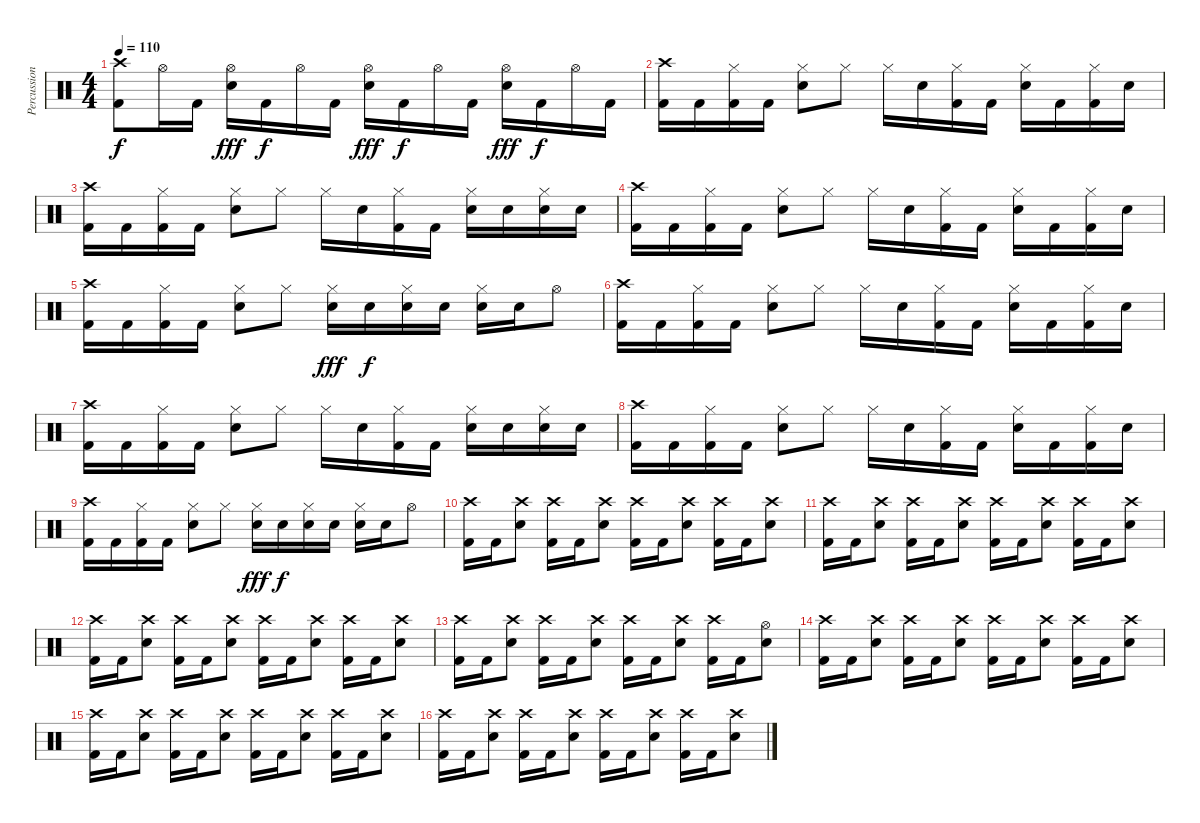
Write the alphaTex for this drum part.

\track ("Percussions" "Percussion") {instrument percussion}
\staff {score}
\articulation defaults
\ts (4 4)
\tempo 110
\clef neutral
\ks c
("Crash high (hit)" "Kick (hit) 2").8{dy f} "Hi-Hat (open)".16 "Kick (hit) 2".16 ("Hi-Hat (open)" "Snare (hit) 2").16{dy fff} "Kick (hit) 2".16{dy f} "Hi-Hat (open)".16 "Kick (hit) 2".16 ("Hi-Hat (open)" "Snare (hit) 2").16{dy fff} "Kick (hit) 2".16{dy f} "Hi-Hat (open)".16 "Kick (hit) 2".16 ("Hi-Hat (open)" "Snare (hit) 2").16{dy fff} "Kick (hit) 2".16{dy f} "Hi-Hat (open)".16 "Kick (hit) 2".16 |
("Crash high (hit)" "Kick (hit) 2").16 "Kick (hit) 2".16 ("Hi-Hat (closed)" "Kick (hit) 2").16 "Kick (hit) 2".16 ("Hi-Hat (closed)" "Snare (hit) 2").8 "Hi-Hat (closed)".8 "Hi-Hat (closed)".16 "Snare (hit) 2".16 ("Hi-Hat (closed)" "Kick (hit) 2").16 "Kick (hit) 2".16 ("Hi-Hat (closed)" "Snare (hit) 2").16 "Kick (hit) 2".16 ("Hi-Hat (closed)" "Kick (hit) 2").16 "Snare (hit) 2".16 |
("Crash high (hit)" "Kick (hit) 2").16 "Kick (hit) 2".16 ("Hi-Hat (closed)" "Kick (hit) 2").16 "Kick (hit) 2".16 ("Hi-Hat (closed)" "Snare (hit) 2").8 "Hi-Hat (closed)".8 "Hi-Hat (closed)".16 "Snare (hit) 2".16 ("Hi-Hat (closed)" "Kick (hit) 2").16 "Kick (hit) 2".16 ("Hi-Hat (closed)" "Snare (hit) 2").16 "Snare (hit) 2".16 ("Hi-Hat (closed)" "Snare (hit) 2").16 "Snare (hit) 2".16 |
("Crash high (hit)" "Kick (hit) 2").16 "Kick (hit) 2".16 ("Hi-Hat (closed)" "Kick (hit) 2").16 "Kick (hit) 2".16 ("Hi-Hat (closed)" "Snare (hit) 2").8 "Hi-Hat (closed)".8 "Hi-Hat (closed)".16 "Snare (hit) 2".16 ("Hi-Hat (closed)" "Kick (hit) 2").16 "Kick (hit) 2".16 ("Hi-Hat (closed)" "Snare (hit) 2").16 "Kick (hit) 2".16 ("Hi-Hat (closed)" "Kick (hit) 2").16 "Snare (hit) 2".16 |
("Crash high (hit)" "Kick (hit) 2").16 "Kick (hit) 2".16 ("Hi-Hat (closed)" "Kick (hit) 2").16 "Kick (hit) 2".16 ("Hi-Hat (closed)" "Snare (hit) 2").8 "Hi-Hat (closed)".8 ("Hi-Hat (closed)" "Snare (hit) 2").16{dy fff} "Snare (hit) 2".16{dy f} ("Hi-Hat (closed)" "Snare (hit) 2").16 "Snare (hit) 2".16 ("Hi-Hat (closed)" "Snare (hit) 2").16 "Snare (hit) 2".16 "Hi-Hat (open)".8 |
("Crash high (hit)" "Kick (hit) 2").16 "Kick (hit) 2".16 ("Hi-Hat (closed)" "Kick (hit) 2").16 "Kick (hit) 2".16 ("Hi-Hat (closed)" "Snare (hit) 2").8 "Hi-Hat (closed)".8 "Hi-Hat (closed)".16 "Snare (hit) 2".16 ("Hi-Hat (closed)" "Kick (hit) 2").16 "Kick (hit) 2".16 ("Hi-Hat (closed)" "Snare (hit) 2").16 "Kick (hit) 2".16 ("Hi-Hat (closed)" "Kick (hit) 2").16 "Snare (hit) 2".16 |
("Crash high (hit)" "Kick (hit) 2").16 "Kick (hit) 2".16 ("Hi-Hat (closed)" "Kick (hit) 2").16 "Kick (hit) 2".16 ("Hi-Hat (closed)" "Snare (hit) 2").8 "Hi-Hat (closed)".8 "Hi-Hat (closed)".16 "Snare (hit) 2".16 ("Hi-Hat (closed)" "Kick (hit) 2").16 "Kick (hit) 2".16 ("Hi-Hat (closed)" "Snare (hit) 2").16 "Snare (hit) 2".16 ("Hi-Hat (closed)" "Snare (hit) 2").16 "Snare (hit) 2".16 |
("Crash high (hit)" "Kick (hit) 2").16 "Kick (hit) 2".16 ("Hi-Hat (closed)" "Kick (hit) 2").16 "Kick (hit) 2".16 ("Hi-Hat (closed)" "Snare (hit) 2").8 "Hi-Hat (closed)".8 "Hi-Hat (closed)".16 "Snare (hit) 2".16 ("Hi-Hat (closed)" "Kick (hit) 2").16 "Kick (hit) 2".16 ("Hi-Hat (closed)" "Snare (hit) 2").16 "Kick (hit) 2".16 ("Hi-Hat (closed)" "Kick (hit) 2").16 "Snare (hit) 2".16 |
("Crash high (hit)" "Kick (hit) 2").16 "Kick (hit) 2".16 ("Hi-Hat (closed)" "Kick (hit) 2").16 "Kick (hit) 2".16 ("Hi-Hat (closed)" "Snare (hit) 2").8 "Hi-Hat (closed)".8 ("Hi-Hat (closed)" "Snare (hit) 2").16{dy fff} "Snare (hit) 2".16{dy f} ("Hi-Hat (closed)" "Snare (hit) 2").16 "Snare (hit) 2".16 ("Hi-Hat (closed)" "Snare (hit) 2").16 "Snare (hit) 2".16 "Hi-Hat (open)".8 |
("Crash high (hit)" "Kick (hit) 2").16 "Kick (hit) 2".16 ("Crash high (hit)" "Snare (hit) 2").8 ("Crash high (hit)" "Kick (hit) 2").16 "Kick (hit) 2".16 ("Crash high (hit)" "Snare (hit) 2").8 ("Crash high (hit)" "Kick (hit) 2").16 "Kick (hit) 2".16 ("Crash high (hit)" "Snare (hit) 2").8 ("Crash high (hit)" "Kick (hit) 2").16 "Kick (hit) 2".16 ("Crash high (hit)" "Snare (hit) 2").8 |
("Crash high (hit)" "Kick (hit) 2").16 "Kick (hit) 2".16 ("Crash high (hit)" "Snare (hit) 2").8 ("Crash high (hit)" "Kick (hit) 2").16 "Kick (hit) 2".16 ("Crash high (hit)" "Snare (hit) 2").8 ("Crash high (hit)" "Kick (hit) 2").16 "Kick (hit) 2".16 ("Crash high (hit)" "Snare (hit) 2").8 ("Crash high (hit)" "Kick (hit) 2").16 "Kick (hit) 2".16 ("Crash high (hit)" "Snare (hit) 2").8 |
("Crash high (hit)" "Kick (hit) 2").16 "Kick (hit) 2".16 ("Crash high (hit)" "Snare (hit) 2").8 ("Crash high (hit)" "Kick (hit) 2").16 "Kick (hit) 2".16 ("Crash high (hit)" "Snare (hit) 2").8 ("Crash high (hit)" "Kick (hit) 2").16 "Kick (hit) 2".16 ("Crash high (hit)" "Snare (hit) 2").8 ("Crash high (hit)" "Kick (hit) 2").16 "Kick (hit) 2".16 ("Crash high (hit)" "Snare (hit) 2").8 |
("Crash high (hit)" "Kick (hit) 2").16 "Kick (hit) 2".16 ("Crash high (hit)" "Snare (hit) 2").8 ("Crash high (hit)" "Kick (hit) 2").16 "Kick (hit) 2".16 ("Crash high (hit)" "Snare (hit) 2").8 ("Crash high (hit)" "Kick (hit) 2").16 "Kick (hit) 2".16 ("Crash high (hit)" "Snare (hit) 2").8 ("Crash high (hit)" "Kick (hit) 2").16 "Kick (hit) 2".16 ("Hi-Hat (open)" "Snare (hit) 2").8 |
("Crash high (hit)" "Kick (hit) 2").16 "Kick (hit) 2".16 ("Crash high (hit)" "Snare (hit) 2").8 ("Crash high (hit)" "Kick (hit) 2").16 "Kick (hit) 2".16 ("Crash high (hit)" "Snare (hit) 2").8 ("Crash high (hit)" "Kick (hit) 2").16 "Kick (hit) 2".16 ("Crash high (hit)" "Snare (hit) 2").8 ("Crash high (hit)" "Kick (hit) 2").16 "Kick (hit) 2".16 ("Crash high (hit)" "Snare (hit) 2").8 |
("Crash high (hit)" "Kick (hit) 2").16 "Kick (hit) 2".16 ("Crash high (hit)" "Snare (hit) 2").8 ("Crash high (hit)" "Kick (hit) 2").16 "Kick (hit) 2".16 ("Crash high (hit)" "Snare (hit) 2").8 ("Crash high (hit)" "Kick (hit) 2").16 "Kick (hit) 2".16 ("Crash high (hit)" "Snare (hit) 2").8 ("Crash high (hit)" "Kick (hit) 2").16 "Kick (hit) 2".16 ("Crash high (hit)" "Snare (hit) 2").8 |
("Crash high (hit)" "Kick (hit) 2").16 "Kick (hit) 2".16 ("Crash high (hit)" "Snare (hit) 2").8 ("Crash high (hit)" "Kick (hit) 2").16 "Kick (hit) 2".16 ("Crash high (hit)" "Snare (hit) 2").8 ("Crash high (hit)" "Kick (hit) 2").16 "Kick (hit) 2".16 ("Crash high (hit)" "Snare (hit) 2").8 ("Crash high (hit)" "Kick (hit) 2").16 "Kick (hit) 2".16 ("Crash high (hit)" "Snare (hit) 2").8
